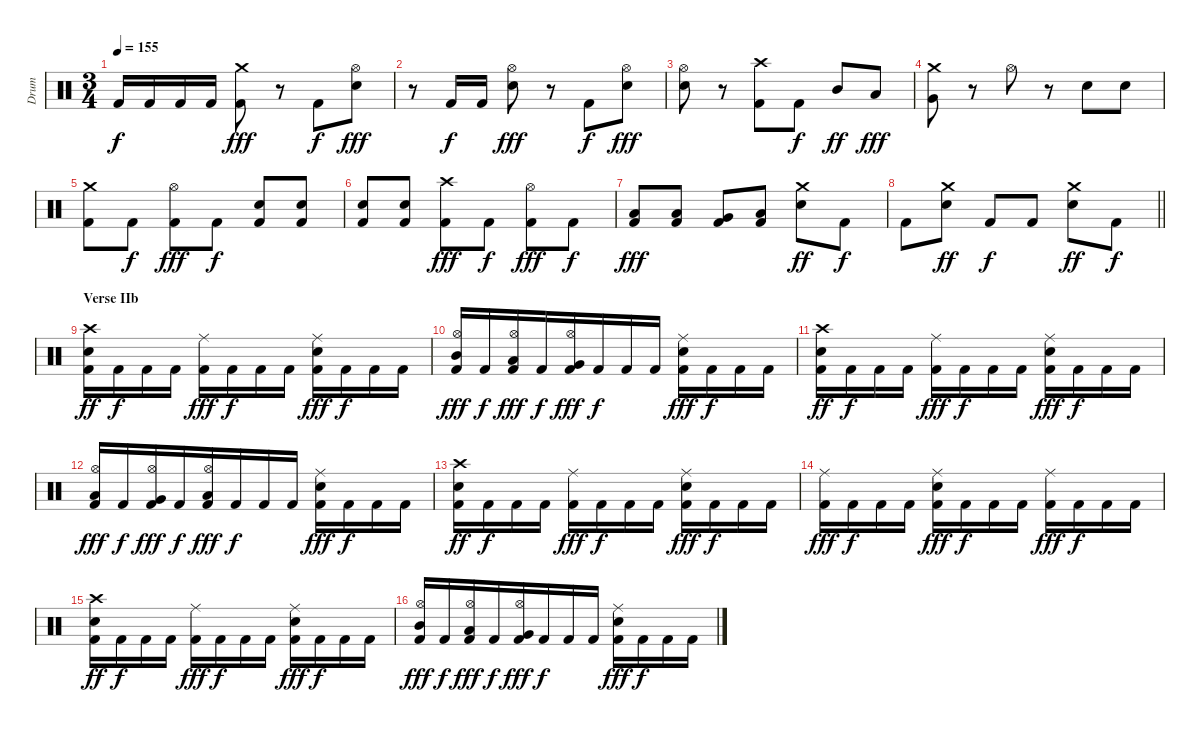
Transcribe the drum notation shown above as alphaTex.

\track ("Drum" "Drum") {instrument percussion}
\staff {score}
\articulation defaults
\ts (3 4)
\tempo 155
\clef neutral
\ks c "Kick (hit) 2".16{dy f} "Kick (hit) 2".16 "Kick (hit) 2".16 "Kick (hit) 2".16
("Crash medium (hit)" "Kick (hit) 2").8{dy fff} r.8 "Kick (hit) 2".8{dy f} ("Hi-Hat (open)" "Snare (hit) 2").8{dy fff} |
r.8 "Kick (hit) 2".16{dy f} "Kick (hit) 2".16 ("Hi-Hat (open)" "Snare (hit) 2").8{dy fff} r.8 "Kick (hit) 2".8{dy f} ("Hi-Hat (open)" "Snare (hit) 2").8{dy fff} |
("Hi-Hat (open)" "Snare (hit) 2").8 r.8 ("Crash high (hit)" "Kick (hit) 2").8 "Kick (hit) 2".8{dy f} "Mid Tom (hit)".8{dy ff} "Low Tom (hit)".8{dy fff} |
("Crash medium (hit)" "Very Low Tom (hit)").8 r.8 "Hi-Hat (open)".8 r.8 "Snare (hit) 2".8 "Snare (hit) 2".8 |
("Crash medium (hit)" "Kick (hit) 2").8 "Kick (hit) 2".8{dy f} ("Hi-Hat (open)" "Kick (hit) 2").8{dy fff} "Kick (hit) 2".8{dy f} ("Snare (hit) 2" "Kick (hit) 2").8 ("Snare (hit) 2" "Kick (hit) 2").8 |
("Snare (hit) 2" "Kick (hit) 2").8 ("Snare (hit) 2" "Kick (hit) 2").8 ("Crash high (hit)" "Kick (hit) 2").8{dy fff} "Kick (hit) 2".8{dy f} ("Hi-Hat (open)" "Kick (hit) 2").8{dy fff} "Kick (hit) 2".8{dy f} |
("Low Floor Tom (hit)" "Kick (hit) 2").8{dy fff} ("Low Floor Tom (hit)" "Kick (hit) 2").8 ("Very Low Tom (hit)" "Kick (hit) 2").8 ("Low Tom (hit)" "Kick (hit) 2").8 ("Crash medium (hit)" "Snare (hit) 2").8{dy ff} "Kick (hit) 2".8{dy f} |
\barLineRight lightlight "Kick (hit) 2".8
("Crash medium (hit)" "Snare (hit) 2").8{dy ff} "Kick (hit) 2".8{dy f} "Kick (hit) 2".8 ("Crash medium (hit)" "Snare (hit) 2").8{dy ff} "Kick (hit) 2".8{dy f} |
\section ("" "Verse IIb")
("Crash high (hit)" "Snare (hit) 2" "Kick (hit) 2").16{dy ff} "Kick (hit) 2".16{dy f} "Kick (hit) 2".16 "Kick (hit) 2".16 ("Ride (middle)" "Kick (hit) 2").16{dy fff} "Kick (hit) 2".16{dy f} "Kick (hit) 2".16 "Kick (hit) 2".16 ("Ride (middle)" "Snare (hit) 2" "Kick (hit) 2").16{dy fff} "Kick (hit) 2".16{dy f} "Kick (hit) 2".16 "Kick (hit) 2".16 |
("Hi-Hat (open)" "Mid Tom (hit)" "Kick (hit) 2").16{dy fff beam merge} "Kick (hit) 2".16{dy f beam merge} ("Hi-Hat (open)" "Low Tom (hit)" "Kick (hit) 2").16{dy fff} "Kick (hit) 2".16{dy f beam merge} ("Hi-Hat (open)" "Very Low Tom (hit)" "Kick (hit) 2").16{dy fff} "Kick (hit) 2".16{dy f} "Kick (hit) 2".16{beam merge} "Kick (hit) 2".16 ("Ride (middle)" "Snare (hit) 2" "Kick (hit) 2").16{dy fff} "Kick (hit) 2".16{dy f} "Kick (hit) 2".16 "Kick (hit) 2".16 |
("Crash high (hit)" "Snare (hit) 2" "Kick (hit) 2").16{dy ff} "Kick (hit) 2".16{dy f} "Kick (hit) 2".16 "Kick (hit) 2".16 ("Ride (middle)" "Kick (hit) 2").16{dy fff} "Kick (hit) 2".16{dy f} "Kick (hit) 2".16 "Kick (hit) 2".16 ("Ride (middle)" "Snare (hit) 2" "Kick (hit) 2").16{dy fff} "Kick (hit) 2".16{dy f} "Kick (hit) 2".16 "Kick (hit) 2".16 |
("Hi-Hat (open)" "Low Tom (hit)" "Kick (hit) 2").16{dy fff beam merge} "Kick (hit) 2".16{dy f beam merge} ("Hi-Hat (open)" "Very Low Tom (hit)" "Kick (hit) 2").16{dy fff} "Kick (hit) 2".16{dy f beam merge} ("Hi-Hat (open)" "Low Floor Tom (hit)" "Kick (hit) 2").16{dy fff} "Kick (hit) 2".16{dy f} "Kick (hit) 2".16{beam merge} "Kick (hit) 2".16 ("Ride (middle)" "Snare (hit) 2" "Kick (hit) 2").16{dy fff} "Kick (hit) 2".16{dy f} "Kick (hit) 2".16 "Kick (hit) 2".16 |
("Crash high (hit)" "Snare (hit) 2" "Kick (hit) 2").16{dy ff} "Kick (hit) 2".16{dy f} "Kick (hit) 2".16 "Kick (hit) 2".16 ("Ride (middle)" "Kick (hit) 2").16{dy fff} "Kick (hit) 2".16{dy f} "Kick (hit) 2".16 "Kick (hit) 2".16 ("Ride (middle)" "Snare (hit) 2" "Kick (hit) 2").16{dy fff} "Kick (hit) 2".16{dy f} "Kick (hit) 2".16 "Kick (hit) 2".16 |
("Ride (middle)" "Kick (hit) 2").16{dy fff} "Kick (hit) 2".16{dy f} "Kick (hit) 2".16 "Kick (hit) 2".16 ("Ride (middle)" "Snare (hit) 2" "Kick (hit) 2").16{dy fff} "Kick (hit) 2".16{dy f} "Kick (hit) 2".16 "Kick (hit) 2".16 ("Ride (middle)" "Kick (hit) 2").16{dy fff} "Kick (hit) 2".16{dy f} "Kick (hit) 2".16 "Kick (hit) 2".16 |
("Crash high (hit)" "Snare (hit) 2" "Kick (hit) 2").16{dy ff} "Kick (hit) 2".16{dy f} "Kick (hit) 2".16 "Kick (hit) 2".16 ("Ride (middle)" "Kick (hit) 2").16{dy fff} "Kick (hit) 2".16{dy f} "Kick (hit) 2".16 "Kick (hit) 2".16 ("Ride (middle)" "Snare (hit) 2" "Kick (hit) 2").16{dy fff} "Kick (hit) 2".16{dy f} "Kick (hit) 2".16 "Kick (hit) 2".16 |
("Hi-Hat (open)" "Mid Tom (hit)" "Kick (hit) 2").16{dy fff beam merge} "Kick (hit) 2".16{dy f beam merge} ("Hi-Hat (open)" "Low Tom (hit)" "Kick (hit) 2").16{dy fff} "Kick (hit) 2".16{dy f beam merge} ("Hi-Hat (open)" "Very Low Tom (hit)" "Kick (hit) 2").16{dy fff} "Kick (hit) 2".16{dy f} "Kick (hit) 2".16{beam merge} "Kick (hit) 2".16 ("Ride (middle)" "Snare (hit) 2" "Kick (hit) 2").16{dy fff} "Kick (hit) 2".16{dy f} "Kick (hit) 2".16 "Kick (hit) 2".16
